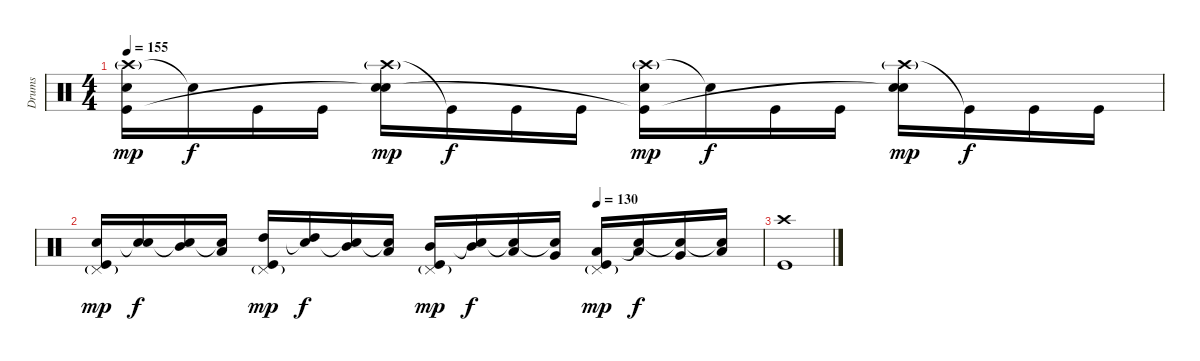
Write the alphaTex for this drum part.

\track ("Drums" "Drums") {instrument percussion}
\staff {score}
\articulation defaults
\ts (4 4)
\tempo 155
\clef neutral
\ks c
("Crash high (hit)"{g} "Electric Snare (hit)" "Kick (hit)"{t}).16{dy mp} "Snare (hit)"{t}.16{dy f} "Kick (hit)".16 "Kick (hit)".16 ("Crash high (hit)"{g} "Electric Snare (hit)" "Snare (hit)"{t}).16{dy mp} "Kick (hit)"{t}.16{dy f} "Kick (hit)".16 "Kick (hit)".16 ("Crash high (hit)"{g} "Electric Snare (hit)" "Kick (hit)"{t}).16{dy mp} "Snare (hit)"{t}.16{dy f} "Kick (hit)".16 "Kick (hit)".16 ("Crash high (hit)"{g} "Electric Snare (hit)" "Snare (hit)"{t}).16{dy mp} "Kick (hit)"{t}.16{dy f} "Kick (hit)".16 "Kick (hit)".16 |
\tempo (130 0.75)
("Pedal Hi-Hat (hit)"{g} "Electric Snare (hit)" "Kick (hit)").16{dy mp} ("Electric Snare (hit)" "Snare (hit)"{t}).16{dy f} ("Mid Tom (hit)" "Snare (hit)"{t}).16 ("Low Tom (hit)" "Snare (hit)"{t}).16 ("Pedal Hi-Hat (hit)"{g} "High Tom (hit)" "Kick (hit)").16{dy mp} ("High Tom (hit)" "Snare (hit)"{t}).16{dy f} ("Mid Tom (hit)" "Snare (hit)"{t}).16 ("Low Tom (hit)" "Snare (hit)"{t}).16 ("Pedal Hi-Hat (hit)"{g} "Mid Tom (hit)" "Kick (hit)").16{dy mp} ("Mid Tom (hit)" "Snare (hit)"{t}).16{dy f} ("Low Tom (hit)" "Snare (hit)"{t}).16 ("Very Low Tom (hit)" "Snare (hit)"{t}).16 ("Pedal Hi-Hat (hit)"{g} "Low Tom (hit)" "Kick (hit)").16{dy mp} ("Low Tom (hit)" "Snare (hit)"{t}).16{dy f} ("Very Low Tom (hit)" "Snare (hit)"{t}).16 ("Low Floor Tom (hit)" "Snare (hit)"{t}).16 |
("Crash high (hit)" "Kick (hit)").1
